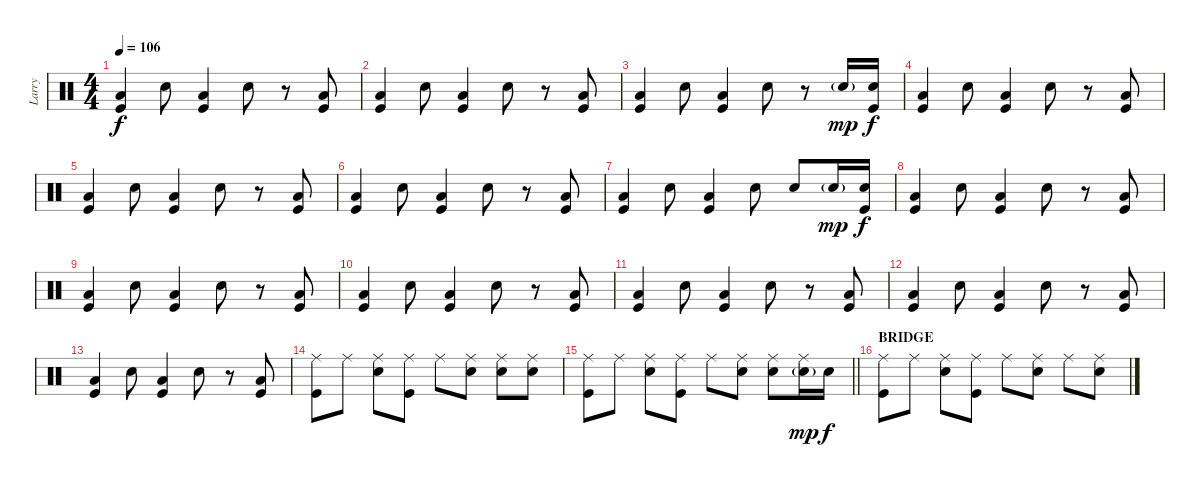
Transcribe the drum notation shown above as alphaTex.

\track ("Larry" "Larry") {instrument percussion}
\staff {score}
\articulation defaults
\ts (4 4)
\tempo 106
\clef neutral
\ks c
("Low Tom (hit)" "Kick (hit)").4{dy f} "Snare (hit) 2".8 ("Low Tom (hit)" "Kick (hit)").4 "Snare (hit) 2".8 r.8 ("Low Tom (hit)" "Kick (hit)").8 |
("Low Tom (hit)" "Kick (hit)").4 "Snare (hit) 2".8 ("Low Tom (hit)" "Kick (hit)").4 "Snare (hit) 2".8 r.8 ("Low Tom (hit)" "Kick (hit)").8 |
("Low Tom (hit)" "Kick (hit)").4 "Snare (hit) 2".8 ("Low Tom (hit)" "Kick (hit)").4 "Snare (hit) 2".8 r.8 "Snare (hit) 2"{g}.16{dy mp} ("Snare (hit) 2" "Kick (hit)").16{dy f} |
("Low Tom (hit)" "Kick (hit)").4 "Snare (hit) 2".8 ("Low Tom (hit)" "Kick (hit)").4 "Snare (hit) 2".8 r.8 ("Low Tom (hit)" "Kick (hit)").8 |
("Low Tom (hit)" "Kick (hit)").4 "Snare (hit) 2".8 ("Low Tom (hit)" "Kick (hit)").4 "Snare (hit) 2".8 r.8 ("Low Tom (hit)" "Kick (hit)").8 |
("Low Tom (hit)" "Kick (hit)").4 "Snare (hit) 2".8 ("Low Tom (hit)" "Kick (hit)").4 "Snare (hit) 2".8 r.8 ("Low Tom (hit)" "Kick (hit)").8 |
("Low Tom (hit)" "Kick (hit)").4 "Snare (hit) 2".8 ("Low Tom (hit)" "Kick (hit)").4 "Snare (hit) 2".8 "Snare (hit) 2".8 "Snare (hit) 2"{g}.16{dy mp} ("Snare (hit) 2" "Kick (hit)").16{dy f} |
("Low Tom (hit)" "Kick (hit)").4 "Snare (hit) 2".8 ("Low Tom (hit)" "Kick (hit)").4 "Snare (hit) 2".8 r.8 ("Low Tom (hit)" "Kick (hit)").8 |
("Low Tom (hit)" "Kick (hit)").4 "Snare (hit) 2".8 ("Low Tom (hit)" "Kick (hit)").4 "Snare (hit) 2".8 r.8 ("Low Tom (hit)" "Kick (hit)").8 |
("Low Tom (hit)" "Kick (hit)").4 "Snare (hit) 2".8 ("Low Tom (hit)" "Kick (hit)").4 "Snare (hit) 2".8 r.8 ("Low Tom (hit)" "Kick (hit)").8 |
("Low Tom (hit)" "Kick (hit)").4 "Snare (hit) 2".8 ("Low Tom (hit)" "Kick (hit)").4 "Snare (hit) 2".8 r.8 ("Low Tom (hit)" "Kick (hit)").8 |
("Low Tom (hit)" "Kick (hit)").4 "Snare (hit) 2".8 ("Low Tom (hit)" "Kick (hit)").4 "Snare (hit) 2".8 r.8 ("Low Tom (hit)" "Kick (hit)").8 |
("Low Tom (hit)" "Kick (hit)").4 "Snare (hit) 2".8 ("Low Tom (hit)" "Kick (hit)").4 "Snare (hit) 2".8 r.8 ("Low Tom (hit)" "Kick (hit)").8 |
("Ride (middle)" "Kick (hit)").8 "Ride (middle)".8 ("Ride (middle)" "Snare (hit) 2").8 ("Ride (middle)" "Kick (hit)").8 "Ride (middle)".8 ("Ride (middle)" "Snare (hit) 2").8 ("Ride (middle)" "Snare (hit) 2").8 ("Ride (middle)" "Snare (hit) 2").8 |
\barLineRight lightlight
("Ride (middle)" "Kick (hit)").8 "Ride (middle)".8 ("Ride (middle)" "Snare (hit) 2").8 ("Ride (middle)" "Kick (hit)").8 "Ride (middle)".8 ("Ride (middle)" "Snare (hit) 2").8 ("Ride (middle)" "Snare (hit) 2").8 ("Ride (middle)" "Snare (hit) 2"{g}).16{dy mp} "Snare (hit) 2".16{dy f} |
\section ("" "BRIDGE")
("Ride (middle)" "Kick (hit)").8 "Ride (middle)".8 ("Ride (middle)" "Snare (hit) 2").8 ("Ride (middle)" "Kick (hit)").8 "Ride (middle)".8 ("Ride (middle)" "Snare (hit) 2").8 "Ride (middle)".8 ("Ride (middle)" "Snare (hit) 2").8
